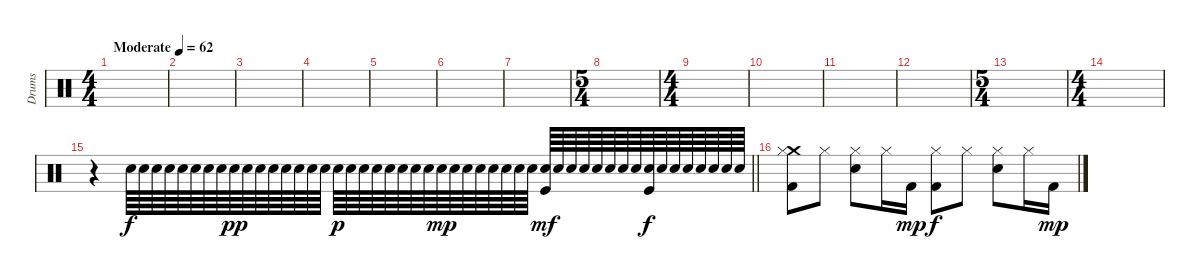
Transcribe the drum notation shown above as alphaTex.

\track ("Drums" "Drums") {instrument percussion}
\staff {score}
\articulation defaults
\ts (4 4)
\tempo (62 "Moderate")
\clef neutral
\ks c
|
|
|
|
|
|
|
\ts (5 4)
|
\ts (4 4)
|
|
|
|
\ts (5 4)
|
\ts (4 4)
|
\barLineRight lightlight
r.4 "Snare (hit) 2".64 "Snare (hit) 2".64 "Snare (hit) 2".64 "Snare (hit) 2".64 "Snare (hit) 2".64 "Snare (hit) 2".64 "Snare (hit) 2".64 "Snare (hit) 2".64 "Snare (hit) 2".64{dy pp} "Snare (hit) 2".64 "Snare (hit) 2".64 "Snare (hit) 2".64 "Snare (hit) 2".64 "Snare (hit) 2".64 "Snare (hit) 2".64 "Snare (hit) 2".64 "Snare (hit) 2".64{dy p} "Snare (hit) 2".64 "Snare (hit) 2".64 "Snare (hit) 2".64 "Snare (hit) 2".64 "Snare (hit) 2".64 "Snare (hit) 2".64 "Snare (hit) 2".64 "Snare (hit) 2".64{dy mp} "Snare (hit) 2".64 "Snare (hit) 2".64 "Snare (hit) 2".64 "Snare (hit) 2".64 "Snare (hit) 2".64 "Snare (hit) 2".64 "Snare (hit) 2".64 ("Kick (hit)" "Snare (hit) 2").64{dy mf} "Snare (hit) 2".64 "Snare (hit) 2".64 "Snare (hit) 2".64 "Snare (hit) 2".64 "Snare (hit) 2".64 "Snare (hit) 2".64 "Snare (hit) 2".64 ("Kick (hit)" "Snare (hit) 2").64{dy f} "Snare (hit) 2".64 "Snare (hit) 2".64 "Snare (hit) 2".64 "Snare (hit) 2".64 "Snare (hit) 2".64 "Snare (hit) 2".64 "Snare (hit) 2".64 |
("Crash medium (hit)" "Hi-Hat (closed)" "Kick (hit) 2").8 "Hi-Hat (closed)".8 ("Hi-Hat (closed)" "Electric Snare (hit)").8 "Hi-Hat (closed)".16 "Kick (hit) 2".16{dy mp} ("Hi-Hat (closed)" "Kick (hit) 2").8{dy f} "Hi-Hat (closed)".8 ("Hi-Hat (closed)" "Electric Snare (hit)").8 "Hi-Hat (closed)".16 "Kick (hit) 2".16{dy mp}
